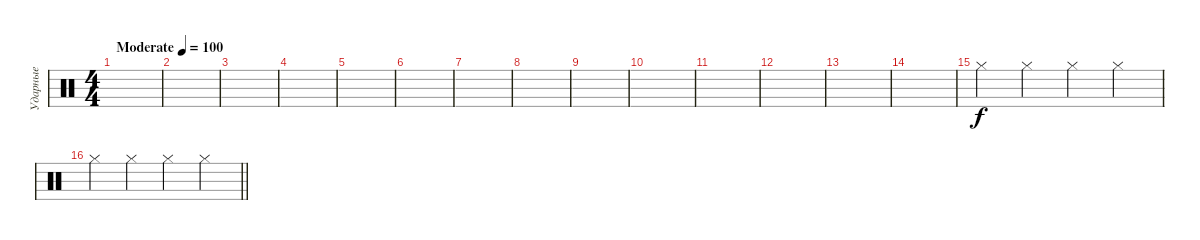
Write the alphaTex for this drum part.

\track ("Ударные" "Ударные") {instrument percussion}
\staff {score}
\articulation defaults
\ts (4 4)
\tempo (100 "Moderate")
\clef neutral
\ks c
|
|
|
|
|
|
|
|
|
|
|
|
|
|
"Hi-Hat (closed)".4 "Hi-Hat (closed)".4 "Hi-Hat (closed)".4 "Hi-Hat (closed)".4 |
\barLineRight lightlight "Hi-Hat (closed)".4 "Hi-Hat (closed)".4 "Hi-Hat (closed)".4 "Hi-Hat (closed)".4
